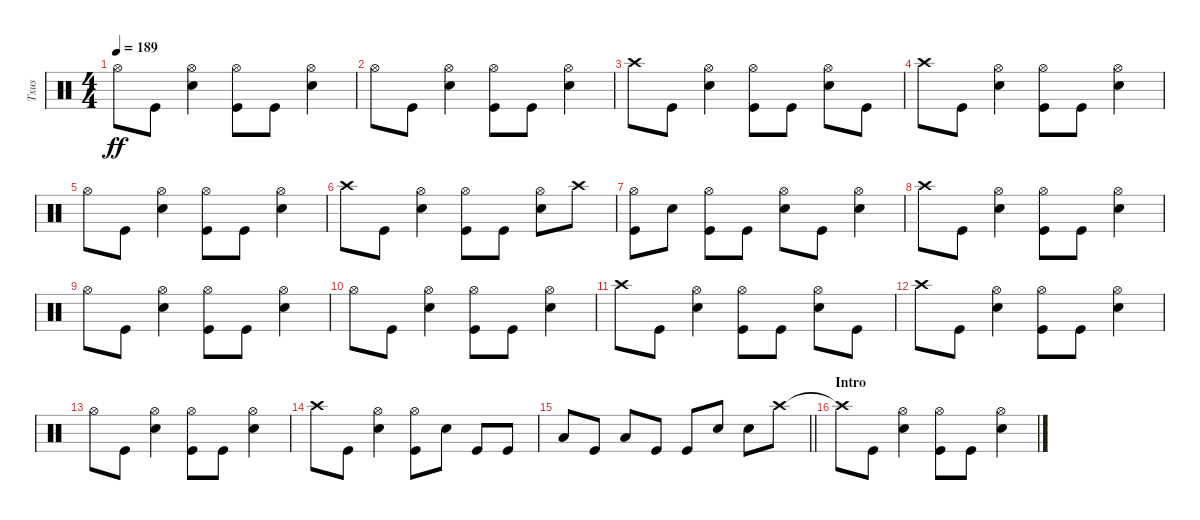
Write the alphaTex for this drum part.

\track ("Txus" "Txus") {instrument percussion}
\staff {score}
\articulation defaults
\ts (4 4)
\tempo 189
\clef neutral
\ks c "Hi-Hat (open)".8{dy ff} "Kick (hit)".8
("Snare (hit) 2" "Hi-Hat (open)").4 ("Kick (hit)" "Hi-Hat (open)").8 "Kick (hit)".8 ("Snare (hit) 2" "Hi-Hat (open)").4 |
"Hi-Hat (open)".8 "Kick (hit)".8 ("Snare (hit) 2" "Hi-Hat (open)").4 ("Kick (hit)" "Hi-Hat (open)").8 "Kick (hit)".8 ("Snare (hit) 2" "Hi-Hat (open)").4 |
"Crash high (hit)".8 "Kick (hit)".8 ("Snare (hit) 2" "Hi-Hat (open)").4 ("Kick (hit)" "Hi-Hat (open)").8 "Kick (hit)".8 ("Snare (hit) 2" "Hi-Hat (open)").8 "Kick (hit)".8 |
"Crash high (hit)".8 "Kick (hit)".8 ("Snare (hit) 2" "Hi-Hat (open)").4 ("Kick (hit)" "Hi-Hat (open)").8 "Kick (hit)".8 ("Snare (hit) 2" "Hi-Hat (open)").4 |
"Hi-Hat (open)".8 "Kick (hit)".8 ("Snare (hit) 2" "Hi-Hat (open)").4 ("Kick (hit)" "Hi-Hat (open)").8 "Kick (hit)".8 ("Snare (hit) 2" "Hi-Hat (open)").4 |
"Crash high (hit)".8 "Kick (hit)".8 ("Snare (hit) 2" "Hi-Hat (open)").4 ("Kick (hit)" "Hi-Hat (open)").8 "Kick (hit)".8 ("Snare (hit) 2" "Hi-Hat (open)").8 "Crash high (hit)".8 |
("Kick (hit)" "Hi-Hat (open)").8 "Snare (hit) 2".8 ("Kick (hit)" "Hi-Hat (open)").8 "Kick (hit)".8 ("Snare (hit) 2" "Hi-Hat (open)").8 "Kick (hit)".8 ("Snare (hit) 2" "Hi-Hat (open)").4 |
"Crash high (hit)".8 "Kick (hit)".8 ("Snare (hit) 2" "Hi-Hat (open)").4 ("Kick (hit)" "Hi-Hat (open)").8 "Kick (hit)".8 ("Snare (hit) 2" "Hi-Hat (open)").4 |
"Hi-Hat (open)".8 "Kick (hit)".8 ("Snare (hit) 2" "Hi-Hat (open)").4 ("Kick (hit)" "Hi-Hat (open)").8 "Kick (hit)".8 ("Snare (hit) 2" "Hi-Hat (open)").4 |
"Hi-Hat (open)".8 "Kick (hit)".8 ("Snare (hit) 2" "Hi-Hat (open)").4 ("Kick (hit)" "Hi-Hat (open)").8 "Kick (hit)".8 ("Snare (hit) 2" "Hi-Hat (open)").4 |
"Crash high (hit)".8 "Kick (hit)".8 ("Snare (hit) 2" "Hi-Hat (open)").4 ("Kick (hit)" "Hi-Hat (open)").8 "Kick (hit)".8 ("Snare (hit) 2" "Hi-Hat (open)").8 "Kick (hit)".8 |
"Crash high (hit)".8 "Kick (hit)".8 ("Snare (hit) 2" "Hi-Hat (open)").4 ("Kick (hit)" "Hi-Hat (open)").8 "Kick (hit)".8 ("Snare (hit) 2" "Hi-Hat (open)").4 |
"Hi-Hat (open)".8 "Kick (hit)".8 ("Snare (hit) 2" "Hi-Hat (open)").4 ("Kick (hit)" "Hi-Hat (open)").8 "Kick (hit)".8 ("Snare (hit) 2" "Hi-Hat (open)").4 |
"Crash high (hit)".8 "Kick (hit)".8 ("Snare (hit) 2" "Hi-Hat (open)").4 ("Kick (hit)" "Hi-Hat (open)").8 "Snare (hit) 2".8 "Kick (hit)".8 "Kick (hit)".8 |
\barLineRight lightlight "Low Tom (hit)".8 "Kick (hit)".8 "Low Tom (hit)".8 "Kick (hit)".8 "Kick (hit)".8 "Snare (hit) 2".8 "Snare (hit) 2".8 "Crash high (hit)".8
|
\section ("" "Intro")
"Crash high (hit)"{t}.8 "Kick (hit)".8 ("Snare (hit) 2" "Hi-Hat (open)").4 ("Kick (hit)" "Hi-Hat (open)").8 "Kick (hit)".8 ("Snare (hit) 2" "Hi-Hat (open)").4
